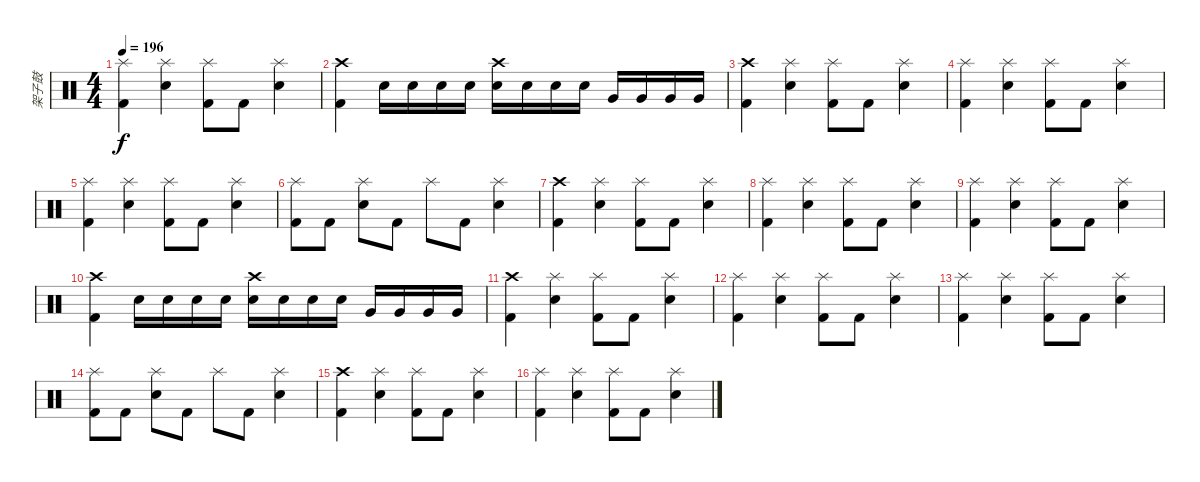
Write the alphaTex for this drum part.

\track ("架子鼓" "架子鼓") {instrument percussion}
\staff {score}
\articulation defaults
\ts (4 4)
\tempo 196
\clef neutral
\ks c
("Splash (hit)" "Kick (hit) 2").4{dy f} ("Splash (hit)" "Snare (hit) 2").4 ("Splash (hit)" "Kick (hit) 2").8 "Kick (hit) 2".8 ("Splash (hit)" "Snare (hit) 2").4 |
("Crash high (hit)" "Kick (hit) 2").4 "Snare (hit) 2".16 "Snare (hit) 2".16 "Snare (hit) 2".16 "Snare (hit) 2".16 ("Crash high (hit)" "Electric Snare (hit)").16 "Electric Snare (hit)".16 "Electric Snare (hit)".16 "Electric Snare (hit)".16 "Very Low Tom (hit)".16 "Very Low Tom (hit)".16 "Very Low Tom (hit)".16 "Very Low Tom (hit)".16 |
("Crash high (hit)" "Kick (hit) 2").4 ("Splash (hit)" "Snare (hit) 2").4 ("Splash (hit)" "Kick (hit) 2").8 "Kick (hit) 2".8 ("Splash (hit)" "Snare (hit) 2").4 |
("Splash (hit)" "Kick (hit) 2").4 ("Splash (hit)" "Snare (hit) 2").4 ("Splash (hit)" "Kick (hit) 2").8 "Kick (hit) 2".8 ("Splash (hit)" "Snare (hit) 2").4 |
("Splash (hit)" "Kick (hit) 2").4 ("Splash (hit)" "Snare (hit) 2").4 ("Splash (hit)" "Kick (hit) 2").8 "Kick (hit) 2".8 ("Splash (hit)" "Snare (hit) 2").4 |
("Splash (hit)" "Kick (hit) 2").8 "Kick (hit) 2".8 ("Splash (hit)" "Snare (hit) 2").8 "Kick (hit) 2".8 "Splash (hit)".8 "Kick (hit) 2".8 ("Splash (hit)" "Snare (hit) 2").4 |
("Crash high (hit)" "Kick (hit) 2").4 ("Splash (hit)" "Snare (hit) 2").4 ("Splash (hit)" "Kick (hit) 2").8 "Kick (hit) 2".8 ("Splash (hit)" "Snare (hit) 2").4 |
("Splash (hit)" "Kick (hit) 2").4 ("Splash (hit)" "Snare (hit) 2").4 ("Splash (hit)" "Kick (hit) 2").8 "Kick (hit) 2".8 ("Splash (hit)" "Snare (hit) 2").4 |
("Splash (hit)" "Kick (hit) 2").4 ("Splash (hit)" "Snare (hit) 2").4 ("Splash (hit)" "Kick (hit) 2").8 "Kick (hit) 2".8 ("Splash (hit)" "Snare (hit) 2").4 |
("Crash high (hit)" "Kick (hit) 2").4 "Snare (hit) 2".16 "Snare (hit) 2".16 "Snare (hit) 2".16 "Snare (hit) 2".16 ("Crash high (hit)" "Electric Snare (hit)").16 "Electric Snare (hit)".16 "Electric Snare (hit)".16 "Electric Snare (hit)".16 "Very Low Tom (hit)".16 "Very Low Tom (hit)".16 "Very Low Tom (hit)".16 "Very Low Tom (hit)".16 |
("Crash high (hit)" "Kick (hit) 2").4 ("Splash (hit)" "Snare (hit) 2").4 ("Splash (hit)" "Kick (hit) 2").8 "Kick (hit) 2".8 ("Splash (hit)" "Snare (hit) 2").4 |
("Splash (hit)" "Kick (hit) 2").4 ("Splash (hit)" "Snare (hit) 2").4 ("Splash (hit)" "Kick (hit) 2").8 "Kick (hit) 2".8 ("Splash (hit)" "Snare (hit) 2").4 |
("Splash (hit)" "Kick (hit) 2").4 ("Splash (hit)" "Snare (hit) 2").4 ("Splash (hit)" "Kick (hit) 2").8 "Kick (hit) 2".8 ("Splash (hit)" "Snare (hit) 2").4 |
("Splash (hit)" "Kick (hit) 2").8 "Kick (hit) 2".8 ("Splash (hit)" "Snare (hit) 2").8 "Kick (hit) 2".8 "Splash (hit)".8 "Kick (hit) 2".8 ("Splash (hit)" "Snare (hit) 2").4 |
("Crash high (hit)" "Kick (hit) 2").4 ("Splash (hit)" "Snare (hit) 2").4 ("Splash (hit)" "Kick (hit) 2").8 "Kick (hit) 2".8 ("Splash (hit)" "Snare (hit) 2").4 |
("Splash (hit)" "Kick (hit) 2").4 ("Splash (hit)" "Snare (hit) 2").4 ("Splash (hit)" "Kick (hit) 2").8 "Kick (hit) 2".8 ("Splash (hit)" "Snare (hit) 2").4
